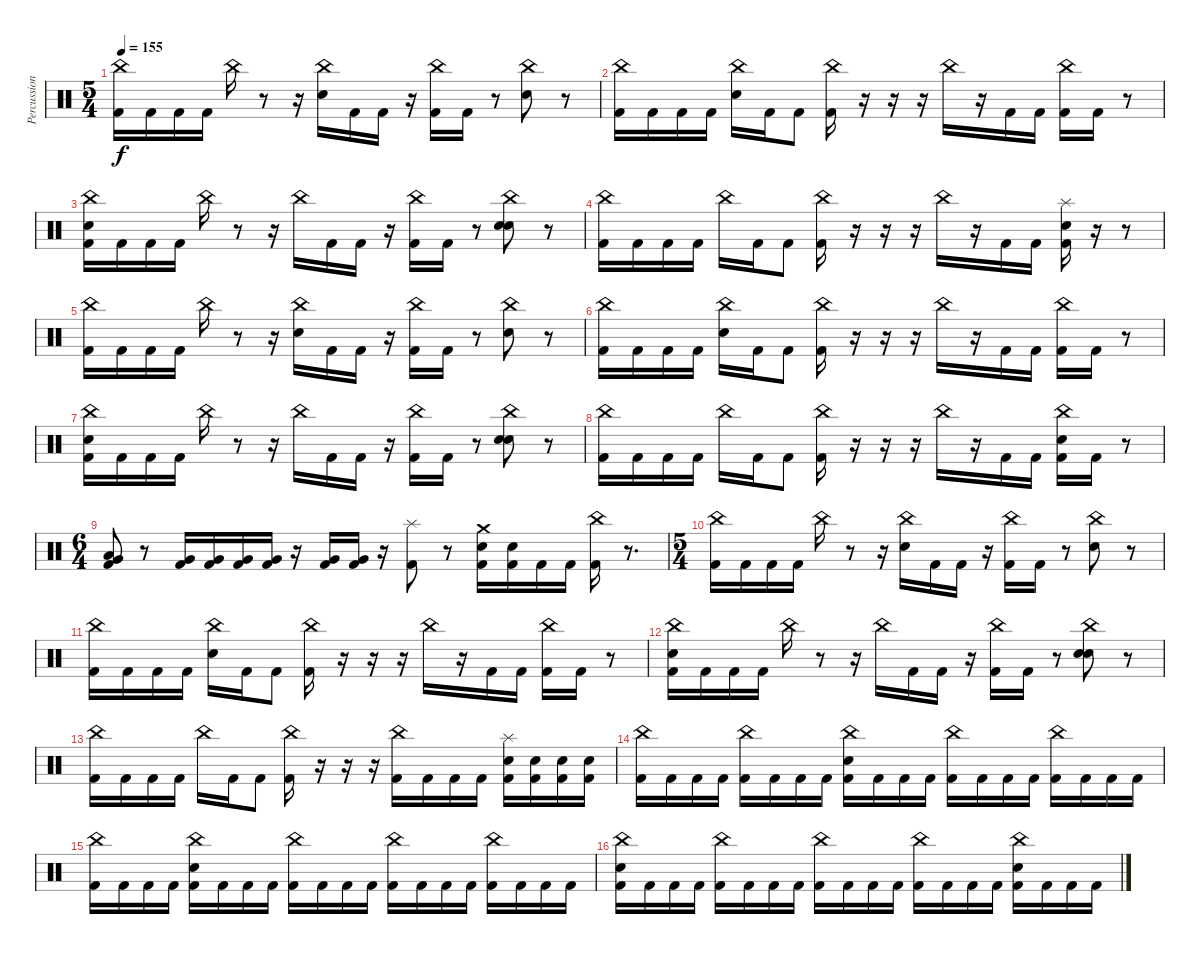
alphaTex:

\track ("Percussion" "Percussion") {instrument percussion}
\staff {score}
\articulation defaults
\ts (5 4)
\tempo 155
\clef neutral
\ks c
("China (hit)" "Kick (hit) 2").16{dy f} "Kick (hit) 2".16 "Kick (hit) 2".16 "Kick (hit) 2".16 "China (hit)".16 r.8 r.16 ("China (hit)" "Snare (hit) 2").16 "Kick (hit) 2".16 "Kick (hit) 2".16 r.16 ("China (hit)" "Kick (hit) 2").16 "Kick (hit) 2".16 r.8 ("China (hit)" "Snare (hit)").8 r.8 |
("China (hit)" "Kick (hit) 2").16 "Kick (hit) 2".16 "Kick (hit) 2".16 "Kick (hit) 2".16 ("China (hit)" "Snare (hit) 2").16 "Kick (hit) 2".16 "Kick (hit) 2".8 ("China (hit)" "Kick (hit) 2").16 r.16 r.16 r.16 "China (hit)".16 r.16 "Kick (hit) 2".16 "Kick (hit) 2".16 ("China (hit)" "Kick (hit) 2").16 "Kick (hit) 2".16 r.8 |
("China (hit)" "Snare (hit) 2" "Kick (hit) 2").16 "Kick (hit) 2".16 "Kick (hit) 2".16 "Kick (hit) 2".16 "China (hit)".16 r.8 r.16 "China (hit)".16 "Kick (hit) 2".16 "Kick (hit) 2".16 r.16 ("China (hit)" "Kick (hit) 2").16 "Kick (hit) 2".16 r.8 ("China (hit)" "Snare (hit) 2" "Snare (hit)").8 r.8 |
("China (hit)" "Kick (hit) 2").16 "Kick (hit) 2".16 "Kick (hit) 2".16 "Kick (hit) 2".16 "China (hit)".16 "Kick (hit) 2".16 "Kick (hit) 2".8 ("China (hit)" "Kick (hit) 2").16 r.16 r.16 r.16 "China (hit)".16 r.16 "Kick (hit) 2".16 "Kick (hit) 2".16 ("Splash (hit)" "Snare (hit) 2" "Kick (hit) 2").16 r.16 r.8 |
("China (hit)" "Kick (hit) 2").16 "Kick (hit) 2".16 "Kick (hit) 2".16 "Kick (hit) 2".16 "China (hit)".16 r.8 r.16 ("China (hit)" "Snare (hit) 2").16 "Kick (hit) 2".16 "Kick (hit) 2".16 r.16 ("China (hit)" "Kick (hit) 2").16 "Kick (hit) 2".16 r.8 ("China (hit)" "Snare (hit)").8 r.8 |
("China (hit)" "Kick (hit) 2").16 "Kick (hit) 2".16 "Kick (hit) 2".16 "Kick (hit) 2".16 ("China (hit)" "Snare (hit) 2").16 "Kick (hit) 2".16 "Kick (hit) 2".8 ("China (hit)" "Kick (hit) 2").16 r.16 r.16 r.16 "China (hit)".16 r.16 "Kick (hit) 2".16 "Kick (hit) 2".16 ("China (hit)" "Kick (hit) 2").16 "Kick (hit) 2".16 r.8 |
("China (hit)" "Snare (hit) 2" "Kick (hit) 2").16 "Kick (hit) 2".16 "Kick (hit) 2".16 "Kick (hit) 2".16 "China (hit)".16 r.8 r.16 "China (hit)".16 "Kick (hit) 2".16 "Kick (hit) 2".16 r.16 ("China (hit)" "Kick (hit) 2").16 "Kick (hit) 2".16 r.8 ("China (hit)" "Snare (hit) 2" "Snare (hit)").8 r.8 |
("China (hit)" "Kick (hit) 2").16 "Kick (hit) 2".16 "Kick (hit) 2".16 "Kick (hit) 2".16 "China (hit)".16 "Kick (hit) 2".16 "Kick (hit) 2".8 ("China (hit)" "Kick (hit) 2").16 r.16 r.16 r.16 "China (hit)".16 r.16 "Kick (hit) 2".16 "Kick (hit) 2".16 ("China (hit)" "Snare (hit) 2" "Kick (hit) 2").16 "Kick (hit) 2".16 r.8 |
\ts (6 4)
("Low Tom (hit)" "Very Low Tom (hit)" "Kick (hit) 2").8 r.8 ("Very Low Tom (hit)" "Kick (hit) 2").16 ("Very Low Tom (hit)" "Kick (hit) 2").16 ("Very Low Tom (hit)" "Kick (hit) 2").16 ("Very Low Tom (hit)" "Kick (hit) 2").16 r.16 ("Very Low Tom (hit)" "Kick (hit) 2").16 ("Very Low Tom (hit)" "Kick (hit) 2").16 r.16 ("Splash (hit)" "Kick (hit) 2").8 r.8 ("Crash medium (hit)" "Snare (hit) 2" "Kick (hit) 2").16 ("Snare (hit) 2" "Kick (hit) 2").16 "Kick (hit) 2".16 "Kick (hit) 2".16 ("China (hit)" "Kick (hit) 2").16 r.8{d} |
\ts (5 4)
("China (hit)" "Kick (hit) 2").16 "Kick (hit) 2".16 "Kick (hit) 2".16 "Kick (hit) 2".16 "China (hit)".16 r.8 r.16 ("China (hit)" "Snare (hit) 2").16 "Kick (hit) 2".16 "Kick (hit) 2".16 r.16 ("China (hit)" "Kick (hit) 2").16 "Kick (hit) 2".16 r.8 ("China (hit)" "Snare (hit)").8 r.8 |
("China (hit)" "Kick (hit) 2").16 "Kick (hit) 2".16 "Kick (hit) 2".16 "Kick (hit) 2".16 ("China (hit)" "Snare (hit) 2").16 "Kick (hit) 2".16 "Kick (hit) 2".8 ("China (hit)" "Kick (hit) 2").16 r.16 r.16 r.16 "China (hit)".16 r.16 "Kick (hit) 2".16 "Kick (hit) 2".16 ("China (hit)" "Kick (hit) 2").16 "Kick (hit) 2".16 r.8 |
("China (hit)" "Snare (hit) 2" "Kick (hit) 2").16 "Kick (hit) 2".16 "Kick (hit) 2".16 "Kick (hit) 2".16 "China (hit)".16 r.8 r.16 "China (hit)".16 "Kick (hit) 2".16 "Kick (hit) 2".16 r.16 ("China (hit)" "Kick (hit) 2").16 "Kick (hit) 2".16 r.8 ("China (hit)" "Snare (hit) 2" "Snare (hit)").8 r.8 |
("China (hit)" "Kick (hit) 2").16 "Kick (hit) 2".16 "Kick (hit) 2".16 "Kick (hit) 2".16 "China (hit)".16 "Kick (hit) 2".16 "Kick (hit) 2".8 ("China (hit)" "Kick (hit) 2").16 r.16 r.16 r.16 ("China (hit)" "Kick (hit) 2").16 "Kick (hit) 2".16 "Kick (hit) 2".16 "Kick (hit) 2".16 ("Splash (hit)" "Snare (hit) 2" "Kick (hit) 2").16 ("Snare (hit) 2" "Kick (hit) 2").16 ("Snare (hit) 2" "Kick (hit) 2").16 ("Snare (hit) 2" "Kick (hit) 2").16 |
("China (hit)" "Kick (hit) 2").16 "Kick (hit) 2".16 "Kick (hit) 2".16 "Kick (hit) 2".16 ("China (hit)" "Kick (hit) 2").16 "Kick (hit) 2".16 "Kick (hit) 2".16 "Kick (hit) 2".16 ("China (hit)" "Snare (hit) 2" "Kick (hit) 2").16 "Kick (hit) 2".16 "Kick (hit) 2".16 "Kick (hit) 2".16 ("China (hit)" "Kick (hit) 2").16 "Kick (hit) 2".16 "Kick (hit) 2".16 "Kick (hit) 2".16 ("China (hit)" "Kick (hit) 2").16 "Kick (hit) 2".16 "Kick (hit) 2".16 "Kick (hit) 2".16 |
("China (hit)" "Kick (hit) 2").16 "Kick (hit) 2".16 "Kick (hit) 2".16 "Kick (hit) 2".16 ("China (hit)" "Snare (hit) 2" "Kick (hit) 2").16 "Kick (hit) 2".16 "Kick (hit) 2".16 "Kick (hit) 2".16 ("China (hit)" "Kick (hit) 2").16 "Kick (hit) 2".16 "Kick (hit) 2".16 "Kick (hit) 2".16 ("China (hit)" "Kick (hit) 2").16 "Kick (hit) 2".16 "Kick (hit) 2".16 "Kick (hit) 2".16 ("China (hit)" "Kick (hit) 2").16 "Kick (hit) 2".16 "Kick (hit) 2".16 "Kick (hit) 2".16 |
("China (hit)" "Snare (hit) 2" "Kick (hit) 2").16 "Kick (hit) 2".16 "Kick (hit) 2".16 "Kick (hit) 2".16 ("China (hit)" "Kick (hit) 2").16 "Kick (hit) 2".16 "Kick (hit) 2".16 "Kick (hit) 2".16 ("China (hit)" "Kick (hit) 2").16 "Kick (hit) 2".16 "Kick (hit) 2".16 "Kick (hit) 2".16 ("China (hit)" "Kick (hit) 2").16 "Kick (hit) 2".16 "Kick (hit) 2".16 "Kick (hit) 2".16 ("China (hit)" "Snare (hit) 2" "Kick (hit) 2").16 "Kick (hit) 2".16 "Kick (hit) 2".16 "Kick (hit) 2".16
